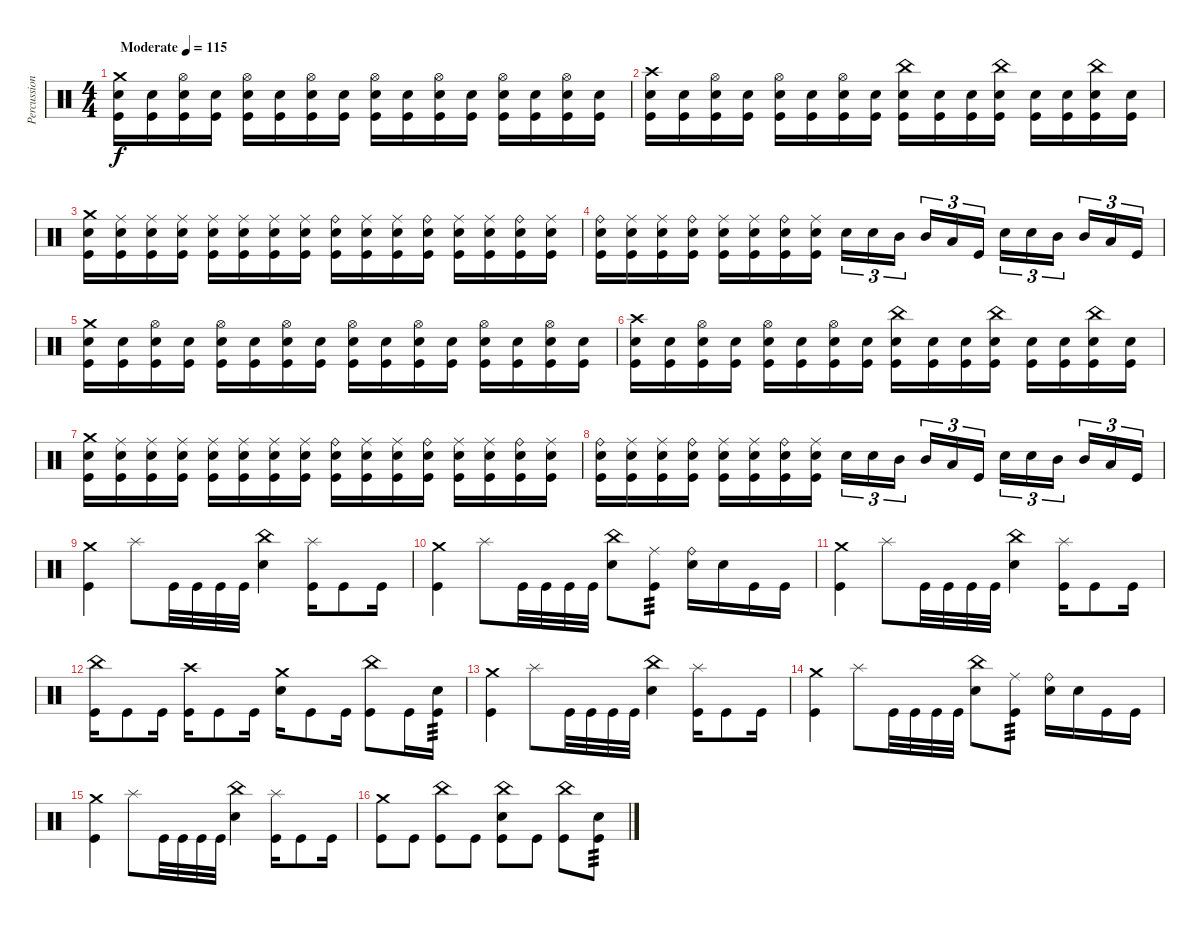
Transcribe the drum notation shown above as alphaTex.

\track ("Percussion" "Percussion") {instrument percussion}
\staff {score}
\articulation defaults
\ts (4 4)
\tempo (115 "Moderate")
\clef neutral
\ks c
("Crash medium (hit)" "Electric Snare (hit)" "Kick (hit)").16{dy f} ("Electric Snare (hit)" "Kick (hit)").16 ("Hi-Hat (open)" "Electric Snare (hit)" "Kick (hit)").16 ("Electric Snare (hit)" "Kick (hit)").16 ("Hi-Hat (open)" "Electric Snare (hit)" "Kick (hit)").16 ("Electric Snare (hit)" "Kick (hit)").16 ("Hi-Hat (open)" "Electric Snare (hit)" "Kick (hit)").16 ("Electric Snare (hit)" "Kick (hit)").16 ("Hi-Hat (open)" "Electric Snare (hit)" "Kick (hit)").16 ("Electric Snare (hit)" "Kick (hit)").16 ("Hi-Hat (open)" "Electric Snare (hit)" "Kick (hit)").16 ("Electric Snare (hit)" "Kick (hit)").16 ("Hi-Hat (open)" "Electric Snare (hit)" "Kick (hit)").16 ("Electric Snare (hit)" "Kick (hit)").16 ("Hi-Hat (open)" "Electric Snare (hit)" "Kick (hit)").16 ("Electric Snare (hit)" "Kick (hit)").16 |
("Crash high (hit)" "Electric Snare (hit)" "Kick (hit)").16 ("Electric Snare (hit)" "Kick (hit)").16 ("Hi-Hat (open)" "Electric Snare (hit)" "Kick (hit)").16 ("Electric Snare (hit)" "Kick (hit)").16 ("Hi-Hat (open)" "Electric Snare (hit)" "Kick (hit)").16 ("Electric Snare (hit)" "Kick (hit)").16 ("Hi-Hat (open)" "Electric Snare (hit)" "Kick (hit)").16 ("Electric Snare (hit)" "Kick (hit)").16 ("China (hit)" "Electric Snare (hit)" "Kick (hit)").16 ("Electric Snare (hit)" "Kick (hit)").16 ("Electric Snare (hit)" "Kick (hit)").16 ("China (hit)" "Electric Snare (hit)" "Kick (hit)").16 ("Electric Snare (hit)" "Kick (hit)").16 ("Electric Snare (hit)" "Kick (hit)").16 ("China (hit)" "Electric Snare (hit)" "Kick (hit)").16 ("Electric Snare (hit)" "Kick (hit)").16 |
("Crash medium (hit)" "Electric Snare (hit)" "Kick (hit)").16 ("Ride (middle)" "Electric Snare (hit)" "Kick (hit)").16 ("Ride (middle)" "Electric Snare (hit)" "Kick (hit)").16 ("Ride (middle)" "Electric Snare (hit)" "Kick (hit)").16 ("Ride (middle)" "Electric Snare (hit)" "Kick (hit)").16 ("Ride (middle)" "Electric Snare (hit)" "Kick (hit)").16 ("Ride (middle)" "Electric Snare (hit)" "Kick (hit)").16 ("Ride (middle)" "Electric Snare (hit)" "Kick (hit)").16 ("Ride (bell)" "Electric Snare (hit)" "Kick (hit)").16 ("Ride (middle)" "Electric Snare (hit)" "Kick (hit)").16 ("Ride (middle)" "Electric Snare (hit)" "Kick (hit)").16 ("Ride (bell)" "Electric Snare (hit)" "Kick (hit)").16 ("Ride (middle)" "Electric Snare (hit)" "Kick (hit)").16 ("Ride (middle)" "Electric Snare (hit)" "Kick (hit)").16 ("Ride (bell)" "Electric Snare (hit)" "Kick (hit)").16 ("Ride (middle)" "Electric Snare (hit)" "Kick (hit)").16 |
("Ride (bell)" "Electric Snare (hit)" "Kick (hit)").16 ("Ride (middle)" "Electric Snare (hit)" "Kick (hit)").16 ("Ride (middle)" "Electric Snare (hit)" "Kick (hit)").16 ("Ride (bell)" "Electric Snare (hit)" "Kick (hit)").16 ("Ride (middle)" "Electric Snare (hit)" "Kick (hit)").16 ("Ride (middle)" "Electric Snare (hit)" "Kick (hit)").16 ("Ride (bell)" "Electric Snare (hit)" "Kick (hit)").16 ("Ride (middle)" "Electric Snare (hit)" "Kick (hit)").16 "Electric Snare (hit)".16{tu (3 2)} "Electric Snare (hit)".16{tu (3 2)} "Mid Tom (hit)".16{tu (3 2) beam splitsecondary} "Mid Tom (hit)".16{tu (3 2)} "Low Tom (hit)".16{tu (3 2)} "Kick (hit)".16{tu (3 2)} "Electric Snare (hit)".16{tu (3 2)} "Electric Snare (hit)".16{tu (3 2)} "Mid Tom (hit)".16{tu (3 2) beam splitsecondary} "Mid Tom (hit)".16{tu (3 2)} "Low Tom (hit)".16{tu (3 2)} "Kick (hit)".16{tu (3 2)} |
("Crash medium (hit)" "Electric Snare (hit)" "Kick (hit)").16 ("Electric Snare (hit)" "Kick (hit)").16 ("Hi-Hat (open)" "Electric Snare (hit)" "Kick (hit)").16 ("Electric Snare (hit)" "Kick (hit)").16 ("Hi-Hat (open)" "Electric Snare (hit)" "Kick (hit)").16 ("Electric Snare (hit)" "Kick (hit)").16 ("Hi-Hat (open)" "Electric Snare (hit)" "Kick (hit)").16 ("Electric Snare (hit)" "Kick (hit)").16 ("Hi-Hat (open)" "Electric Snare (hit)" "Kick (hit)").16 ("Electric Snare (hit)" "Kick (hit)").16 ("Hi-Hat (open)" "Electric Snare (hit)" "Kick (hit)").16 ("Electric Snare (hit)" "Kick (hit)").16 ("Hi-Hat (open)" "Electric Snare (hit)" "Kick (hit)").16 ("Electric Snare (hit)" "Kick (hit)").16 ("Hi-Hat (open)" "Electric Snare (hit)" "Kick (hit)").16 ("Electric Snare (hit)" "Kick (hit)").16 |
("Crash high (hit)" "Electric Snare (hit)" "Kick (hit)").16 ("Electric Snare (hit)" "Kick (hit)").16 ("Hi-Hat (open)" "Electric Snare (hit)" "Kick (hit)").16 ("Electric Snare (hit)" "Kick (hit)").16 ("Hi-Hat (open)" "Electric Snare (hit)" "Kick (hit)").16 ("Electric Snare (hit)" "Kick (hit)").16 ("Hi-Hat (open)" "Electric Snare (hit)" "Kick (hit)").16 ("Electric Snare (hit)" "Kick (hit)").16 ("China (hit)" "Electric Snare (hit)" "Kick (hit)").16 ("Electric Snare (hit)" "Kick (hit)").16 ("Electric Snare (hit)" "Kick (hit)").16 ("China (hit)" "Electric Snare (hit)" "Kick (hit)").16 ("Electric Snare (hit)" "Kick (hit)").16 ("Electric Snare (hit)" "Kick (hit)").16 ("China (hit)" "Electric Snare (hit)" "Kick (hit)").16 ("Electric Snare (hit)" "Kick (hit)").16 |
("Crash medium (hit)" "Electric Snare (hit)" "Kick (hit)").16 ("Ride (middle)" "Electric Snare (hit)" "Kick (hit)").16 ("Ride (middle)" "Electric Snare (hit)" "Kick (hit)").16 ("Ride (middle)" "Electric Snare (hit)" "Kick (hit)").16 ("Ride (middle)" "Electric Snare (hit)" "Kick (hit)").16 ("Ride (middle)" "Electric Snare (hit)" "Kick (hit)").16 ("Ride (middle)" "Electric Snare (hit)" "Kick (hit)").16 ("Ride (middle)" "Electric Snare (hit)" "Kick (hit)").16 ("Ride (bell)" "Electric Snare (hit)" "Kick (hit)").16 ("Ride (middle)" "Electric Snare (hit)" "Kick (hit)").16 ("Ride (middle)" "Electric Snare (hit)" "Kick (hit)").16 ("Ride (bell)" "Electric Snare (hit)" "Kick (hit)").16 ("Ride (middle)" "Electric Snare (hit)" "Kick (hit)").16 ("Ride (middle)" "Electric Snare (hit)" "Kick (hit)").16 ("Ride (bell)" "Electric Snare (hit)" "Kick (hit)").16 ("Ride (middle)" "Electric Snare (hit)" "Kick (hit)").16 |
("Ride (bell)" "Electric Snare (hit)" "Kick (hit)").16 ("Ride (middle)" "Electric Snare (hit)" "Kick (hit)").16 ("Ride (middle)" "Electric Snare (hit)" "Kick (hit)").16 ("Ride (bell)" "Electric Snare (hit)" "Kick (hit)").16 ("Ride (middle)" "Electric Snare (hit)" "Kick (hit)").16 ("Ride (middle)" "Electric Snare (hit)" "Kick (hit)").16 ("Ride (bell)" "Electric Snare (hit)" "Kick (hit)").16 ("Ride (middle)" "Electric Snare (hit)" "Kick (hit)").16 "Electric Snare (hit)".16{tu (3 2)} "Electric Snare (hit)".16{tu (3 2)} "Mid Tom (hit)".16{tu (3 2) beam splitsecondary} "Mid Tom (hit)".16{tu (3 2)} "Low Tom (hit)".16{tu (3 2)} "Kick (hit)".16{tu (3 2)} "Electric Snare (hit)".16{tu (3 2)} "Electric Snare (hit)".16{tu (3 2)} "Mid Tom (hit)".16{tu (3 2) beam splitsecondary} "Mid Tom (hit)".16{tu (3 2)} "Low Tom (hit)".16{tu (3 2)} "Kick (hit)".16{tu (3 2)} |
("Crash medium (hit)" "Kick (hit)").4 "Splash (hit)".8 "Kick (hit)".32 "Kick (hit)".32 "Kick (hit)".32 "Kick (hit)".32 ("China (hit)" "Electric Snare (hit)").4 ("Splash (hit)" "Kick (hit)").16 "Kick (hit)".8 "Kick (hit)".16 |
("Crash medium (hit)" "Kick (hit)").4 "Splash (hit)".8 "Kick (hit)".32 "Kick (hit)".32 "Kick (hit)".32 "Kick (hit)".32 ("China (hit)" "Electric Snare (hit)").8 ("Ride (middle)" "Kick (hit)").8{tp 3} ("Ride (bell)" "Electric Snare (hit)").16 "Electric Snare (hit)".16 "Kick (hit)".16 "Kick (hit)".16 |
("Crash medium (hit)" "Kick (hit)").4 "Splash (hit)".8 "Kick (hit)".32 "Kick (hit)".32 "Kick (hit)".32 "Kick (hit)".32 ("China (hit)" "Electric Snare (hit)").4 ("Splash (hit)" "Kick (hit)").16 "Kick (hit)".8 "Kick (hit)".16 |
("China (hit)" "Kick (hit)").16 "Kick (hit)".8 "Kick (hit)".16 ("Crash high (hit)" "Kick (hit)").16 "Kick (hit)".8 "Kick (hit)".16 ("Crash medium (hit)" "Electric Snare (hit)").16 "Kick (hit)".8 "Kick (hit)".16 ("China (hit)" "Kick (hit)").8 "Kick (hit)".16 ("Electric Snare (hit)" "Kick (hit)").16{tp 3} |
("Crash medium (hit)" "Kick (hit)").4 "Splash (hit)".8 "Kick (hit)".32 "Kick (hit)".32 "Kick (hit)".32 "Kick (hit)".32 ("China (hit)" "Electric Snare (hit)").4 ("Splash (hit)" "Kick (hit)").16 "Kick (hit)".8 "Kick (hit)".16 |
("Crash medium (hit)" "Kick (hit)").4 "Splash (hit)".8 "Kick (hit)".32 "Kick (hit)".32 "Kick (hit)".32 "Kick (hit)".32 ("China (hit)" "Electric Snare (hit)").8 ("Ride (middle)" "Kick (hit)").8{tp 3} ("Ride (bell)" "Electric Snare (hit)").16 "Electric Snare (hit)".16 "Kick (hit)".16 "Kick (hit)".16 |
("Crash medium (hit)" "Kick (hit)").4 "Splash (hit)".8 "Kick (hit)".32 "Kick (hit)".32 "Kick (hit)".32 "Kick (hit)".32 ("China (hit)" "Electric Snare (hit)").4 ("Splash (hit)" "Kick (hit)").16 "Kick (hit)".8 "Kick (hit)".16 |
("Crash medium (hit)" "Kick (hit)").8 "Kick (hit)".8 ("China (hit)" "Kick (hit)").8 "Kick (hit)".8 ("China (hit)" "Electric Snare (hit)" "Kick (hit)").8 "Kick (hit)".8 ("China (hit)" "Kick (hit)").8 ("Electric Snare (hit)" "Kick (hit)").8{tp 3}
